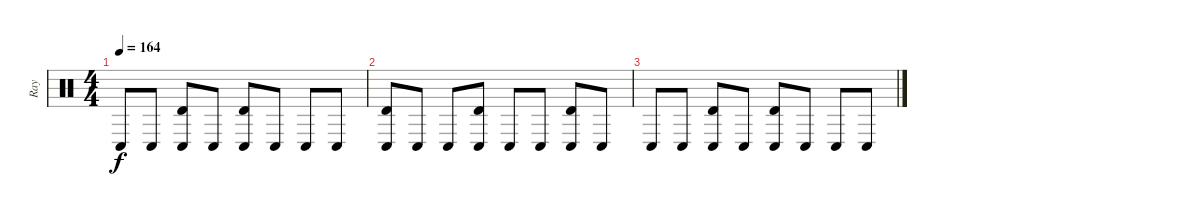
\track ("Ray" "Ray") {instrument percussion}
\staff {score}
\articulation defaults
\ts (4 4)
\tempo 164
\clef neutral
\ks c "Conga low (hit)".8{dy f} "Conga low (hit)".8
("Timbale high (hit)" "Conga low (hit)").8 "Conga low (hit)".8 ("Timbale high (hit)" "Conga low (hit)").8 "Conga low (hit)".8 "Conga low (hit)".8 "Conga low (hit)".8 |
("Timbale high (hit)" "Conga low (hit)").8 "Conga low (hit)".8 "Conga low (hit)".8 ("Timbale high (hit)" "Conga low (hit)").8 "Conga low (hit)".8 "Conga low (hit)".8 ("Timbale high (hit)" "Conga low (hit)").8 "Conga low (hit)".8 |
"Conga low (hit)".8 "Conga low (hit)".8 ("Timbale high (hit)" "Conga low (hit)").8 "Conga low (hit)".8 ("Timbale high (hit)" "Conga low (hit)").8 "Conga low (hit)".8 "Conga low (hit)".8 "Conga low (hit)".8
